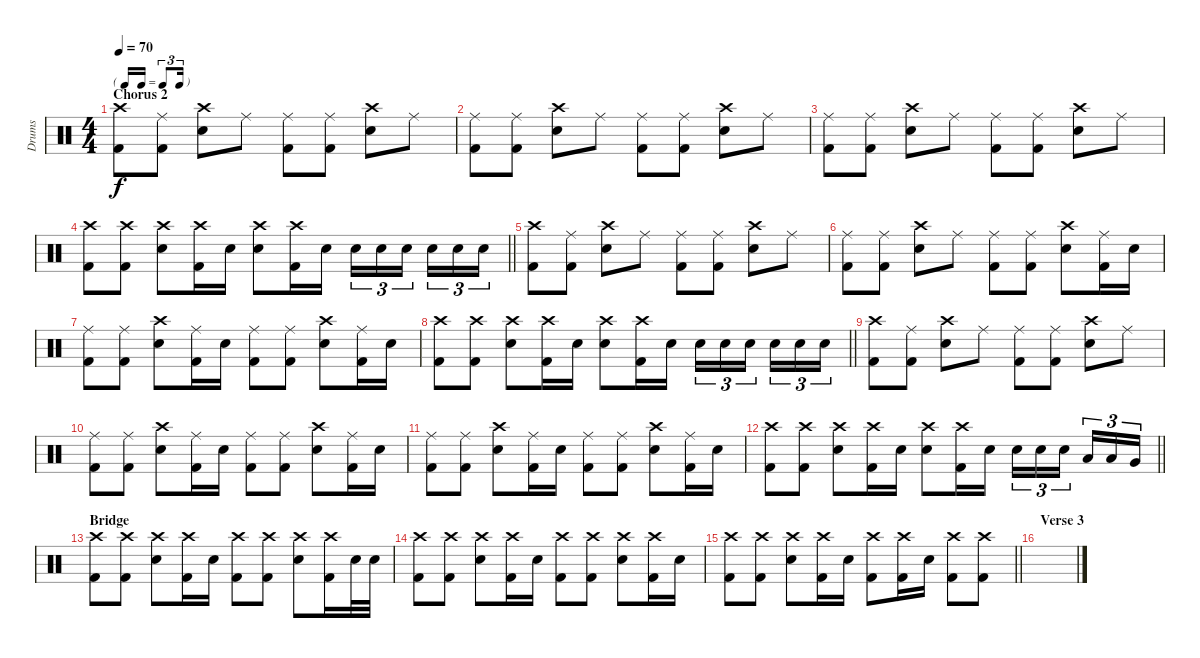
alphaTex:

\track ("Drums" "Drums") {instrument percussion}
\staff {score}
\articulation defaults
\ts (4 4)
\tf triplet16th
\section ("" "Chorus 2")
\tempo 70
\clef neutral
\ks c
("Crash high (hit)" "Kick (hit) 2").8{dy f} ("Ride (middle)" "Kick (hit) 2").8 ("Crash high (hit)" "Snare (hit) 2").8 "Ride (middle)".8 ("Ride (middle)" "Kick (hit) 2").8 ("Ride (middle)" "Kick (hit) 2").8 ("Crash high (hit)" "Snare (hit) 2").8 "Ride (middle)".8 |
("Ride (middle)" "Kick (hit) 2").8 ("Ride (middle)" "Kick (hit) 2").8 ("Crash high (hit)" "Snare (hit) 2").8 "Ride (middle)".8 ("Ride (middle)" "Kick (hit) 2").8 ("Ride (middle)" "Kick (hit) 2").8 ("Crash high (hit)" "Snare (hit) 2").8 "Ride (middle)".8 |
("Ride (middle)" "Kick (hit) 2").8 ("Ride (middle)" "Kick (hit) 2").8 ("Crash high (hit)" "Snare (hit) 2").8 "Ride (middle)".8 ("Ride (middle)" "Kick (hit) 2").8 ("Ride (middle)" "Kick (hit) 2").8 ("Crash high (hit)" "Snare (hit) 2").8 "Ride (middle)".8 |
\barLineRight lightlight
("Crash high (hit)" "Kick (hit) 2").8 ("Crash high (hit)" "Kick (hit) 2").8 ("Crash high (hit)" "Snare (hit) 2").8 ("Crash high (hit)" "Kick (hit) 2").16 "Snare (hit) 2".16 ("Crash high (hit)" "Snare (hit) 2").8 ("Crash high (hit)" "Kick (hit) 2").16 "Snare (hit) 2".16 "Snare (hit) 2".16{tu (3 2)} "Snare (hit) 2".16{tu (3 2)} "Snare (hit) 2".16{tu (3 2) beam splitsecondary} "Snare (hit) 2".16{tu (3 2)} "Snare (hit) 2".16{tu (3 2)} "Snare (hit) 2".16{tu (3 2)} |
("Crash high (hit)" "Kick (hit) 2").8 ("Ride (middle)" "Kick (hit) 2").8 ("Crash high (hit)" "Snare (hit) 2").8 "Ride (middle)".8 ("Ride (middle)" "Kick (hit) 2").8 ("Ride (middle)" "Kick (hit) 2").8 ("Crash high (hit)" "Snare (hit) 2").8 "Ride (middle)".8 |
("Ride (middle)" "Kick (hit) 2").8 ("Ride (middle)" "Kick (hit) 2").8 ("Crash high (hit)" "Snare (hit) 2").8 "Ride (middle)".8 ("Ride (middle)" "Kick (hit) 2").8 ("Ride (middle)" "Kick (hit) 2").8 ("Crash high (hit)" "Snare (hit) 2").8 ("Ride (middle)" "Kick (hit) 2").16 "Snare (hit) 2".16 |
("Ride (middle)" "Kick (hit) 2").8 ("Ride (middle)" "Kick (hit) 2").8 ("Crash high (hit)" "Snare (hit) 2").8 ("Ride (middle)" "Kick (hit) 2").16 "Snare (hit) 2".16 ("Ride (middle)" "Kick (hit) 2").8 ("Ride (middle)" "Kick (hit) 2").8 ("Crash high (hit)" "Snare (hit) 2").8 ("Ride (middle)" "Kick (hit) 2").16 "Snare (hit) 2".16 |
\barLineRight lightlight
("Crash high (hit)" "Kick (hit) 2").8 ("Crash high (hit)" "Kick (hit) 2").8 ("Crash high (hit)" "Snare (hit) 2").8 ("Crash high (hit)" "Kick (hit) 2").16 "Snare (hit) 2".16 ("Crash high (hit)" "Snare (hit) 2").8 ("Crash high (hit)" "Kick (hit) 2").16 "Snare (hit) 2".16 "Snare (hit) 2".16{tu (3 2)} "Snare (hit) 2".16{tu (3 2)} "Snare (hit) 2".16{tu (3 2) beam splitsecondary} "Snare (hit) 2".16{tu (3 2)} "Snare (hit) 2".16{tu (3 2)} "Snare (hit) 2".16{tu (3 2)} |
("Crash high (hit)" "Kick (hit) 2").8 ("Ride (middle)" "Kick (hit) 2").8 ("Crash high (hit)" "Snare (hit) 2").8 "Ride (middle)".8 ("Ride (middle)" "Kick (hit) 2").8 ("Ride (middle)" "Kick (hit) 2").8 ("Crash high (hit)" "Snare (hit) 2").8 "Ride (middle)".8 |
("Ride (middle)" "Kick (hit) 2").8 ("Ride (middle)" "Kick (hit) 2").8 ("Crash high (hit)" "Snare (hit) 2").8 ("Ride (middle)" "Kick (hit) 2").16 "Snare (hit) 2".16 ("Ride (middle)" "Kick (hit) 2").8 ("Ride (middle)" "Kick (hit) 2").8 ("Crash high (hit)" "Snare (hit) 2").8 ("Ride (middle)" "Kick (hit) 2").16 "Snare (hit) 2".16 |
("Ride (middle)" "Kick (hit) 2").8 ("Ride (middle)" "Kick (hit) 2").8 ("Crash high (hit)" "Snare (hit) 2").8 ("Ride (middle)" "Kick (hit) 2").16 "Snare (hit) 2".16 ("Ride (middle)" "Kick (hit) 2").8 ("Ride (middle)" "Kick (hit) 2").8 ("Crash high (hit)" "Snare (hit) 2").8 ("Ride (middle)" "Kick (hit) 2").16 "Snare (hit) 2".16 |
\barLineRight lightlight
("Crash high (hit)" "Kick (hit) 2").8 ("Crash high (hit)" "Kick (hit) 2").8 ("Crash high (hit)" "Snare (hit) 2").8 ("Crash high (hit)" "Kick (hit) 2").16 "Snare (hit) 2".16 ("Crash high (hit)" "Snare (hit) 2").8 ("Crash high (hit)" "Kick (hit) 2").16 "Snare (hit) 2".16 "Snare (hit) 2".16{tu (3 2)} "Snare (hit) 2".16{tu (3 2)} "Snare (hit) 2".16{tu (3 2) beam splitsecondary} "Low Tom (hit)".16{tu (3 2)} "Low Tom (hit)".16{tu (3 2)} "Very Low Tom (hit)".16{tu (3 2)} |
\section ("" "Bridge")
("Crash high (hit)" "Kick (hit) 2").8 ("Crash high (hit)" "Kick (hit) 2").8 ("Crash high (hit)" "Snare (hit) 2").8 ("Crash high (hit)" "Kick (hit) 2").16 "Snare (hit) 2".16 ("Crash high (hit)" "Kick (hit) 2").8 ("Crash high (hit)" "Kick (hit) 2").8 ("Crash high (hit)" "Snare (hit) 2").8 ("Crash high (hit)" "Kick (hit) 2").16 "Snare (hit) 2".32 "Snare (hit) 2".32 |
("Crash high (hit)" "Kick (hit) 2").8 ("Crash high (hit)" "Kick (hit) 2").8 ("Crash high (hit)" "Snare (hit) 2").8 ("Crash high (hit)" "Kick (hit) 2").16 "Snare (hit) 2".16 ("Crash high (hit)" "Kick (hit) 2").8 ("Crash high (hit)" "Kick (hit) 2").8 ("Crash high (hit)" "Snare (hit) 2").8 ("Crash high (hit)" "Kick (hit) 2").16 "Snare (hit) 2".16 |
\barLineRight lightlight
("Crash high (hit)" "Kick (hit) 2").8 ("Crash high (hit)" "Kick (hit) 2").8 ("Crash high (hit)" "Snare (hit) 2").8 ("Crash high (hit)" "Kick (hit) 2").16 "Snare (hit) 2".16 ("Crash high (hit)" "Kick (hit) 2").8 ("Crash high (hit)" "Kick (hit) 2").16 "Snare (hit) 2".16 ("Crash high (hit)" "Kick (hit) 2").8 ("Crash high (hit)" "Kick (hit) 2").8 |
\section ("" "Verse 3")
